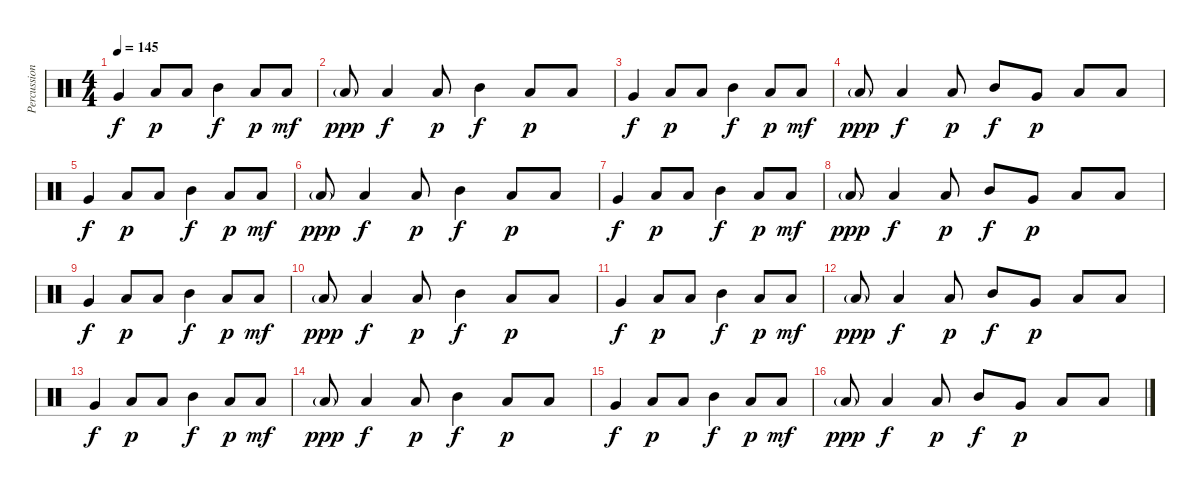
\track ("Percussion" "Percussion") {instrument percussion}
\staff {score}
\articulation defaults
\ts (4 4)
\tempo 145
\clef neutral
\ks c "Very Low Tom (hit)".4{dy f} "Low Floor Tom (hit)".8{dy p} "Low Floor Tom (hit)".8 "Mid Tom (hit)".4{dy f} "Low Floor Tom (hit)".8{dy p} "Low Tom (hit)".8{dy mf}
|
"Low Floor Tom (hit)"{g}.8{dy ppp} "Low Tom (hit)".4{dy f} "Low Floor Tom (hit)".8{dy p} "Mid Tom (hit)".4{dy f} "Low Floor Tom (hit)".8{dy p} "Low Floor Tom (hit)".8 |
"Very Low Tom (hit)".4{dy f} "Low Floor Tom (hit)".8{dy p} "Low Floor Tom (hit)".8 "Mid Tom (hit)".4{dy f} "Low Floor Tom (hit)".8{dy p} "Low Tom (hit)".8{dy mf} |
"Low Floor Tom (hit)"{g}.8{dy ppp} "Low Tom (hit)".4{dy f} "Low Floor Tom (hit)".8{dy p} "Mid Tom (hit)".8{dy f} "Very Low Tom (hit)".8{dy p} "Low Floor Tom (hit)".8 "Low Floor Tom (hit)".8 |
"Very Low Tom (hit)".4{dy f} "Low Floor Tom (hit)".8{dy p} "Low Floor Tom (hit)".8 "Mid Tom (hit)".4{dy f} "Low Floor Tom (hit)".8{dy p} "Low Tom (hit)".8{dy mf} |
"Low Floor Tom (hit)"{g}.8{dy ppp} "Low Tom (hit)".4{dy f} "Low Floor Tom (hit)".8{dy p} "Mid Tom (hit)".4{dy f} "Low Floor Tom (hit)".8{dy p} "Low Floor Tom (hit)".8 |
"Very Low Tom (hit)".4{dy f} "Low Floor Tom (hit)".8{dy p} "Low Floor Tom (hit)".8 "Mid Tom (hit)".4{dy f} "Low Floor Tom (hit)".8{dy p} "Low Tom (hit)".8{dy mf} |
"Low Floor Tom (hit)"{g}.8{dy ppp} "Low Tom (hit)".4{dy f} "Low Floor Tom (hit)".8{dy p} "Mid Tom (hit)".8{dy f} "Very Low Tom (hit)".8{dy p} "Low Floor Tom (hit)".8 "Low Floor Tom (hit)".8 |
"Very Low Tom (hit)".4{dy f} "Low Floor Tom (hit)".8{dy p} "Low Floor Tom (hit)".8 "Mid Tom (hit)".4{dy f} "Low Floor Tom (hit)".8{dy p} "Low Tom (hit)".8{dy mf} |
"Low Floor Tom (hit)"{g}.8{dy ppp} "Low Tom (hit)".4{dy f} "Low Floor Tom (hit)".8{dy p} "Mid Tom (hit)".4{dy f} "Low Floor Tom (hit)".8{dy p} "Low Floor Tom (hit)".8 |
"Very Low Tom (hit)".4{dy f} "Low Floor Tom (hit)".8{dy p} "Low Floor Tom (hit)".8 "Mid Tom (hit)".4{dy f} "Low Floor Tom (hit)".8{dy p} "Low Tom (hit)".8{dy mf} |
"Low Floor Tom (hit)"{g}.8{dy ppp} "Low Tom (hit)".4{dy f} "Low Floor Tom (hit)".8{dy p} "Mid Tom (hit)".8{dy f} "Very Low Tom (hit)".8{dy p} "Low Floor Tom (hit)".8 "Low Floor Tom (hit)".8 |
"Very Low Tom (hit)".4{dy f} "Low Floor Tom (hit)".8{dy p} "Low Floor Tom (hit)".8 "Mid Tom (hit)".4{dy f} "Low Floor Tom (hit)".8{dy p} "Low Tom (hit)".8{dy mf} |
"Low Floor Tom (hit)"{g}.8{dy ppp} "Low Tom (hit)".4{dy f} "Low Floor Tom (hit)".8{dy p} "Mid Tom (hit)".4{dy f} "Low Floor Tom (hit)".8{dy p} "Low Floor Tom (hit)".8 |
"Very Low Tom (hit)".4{dy f} "Low Floor Tom (hit)".8{dy p} "Low Floor Tom (hit)".8 "Mid Tom (hit)".4{dy f} "Low Floor Tom (hit)".8{dy p} "Low Tom (hit)".8{dy mf} |
"Low Floor Tom (hit)"{g}.8{dy ppp} "Low Tom (hit)".4{dy f} "Low Floor Tom (hit)".8{dy p} "Mid Tom (hit)".8{dy f} "Very Low Tom (hit)".8{dy p} "Low Floor Tom (hit)".8 "Low Floor Tom (hit)".8
